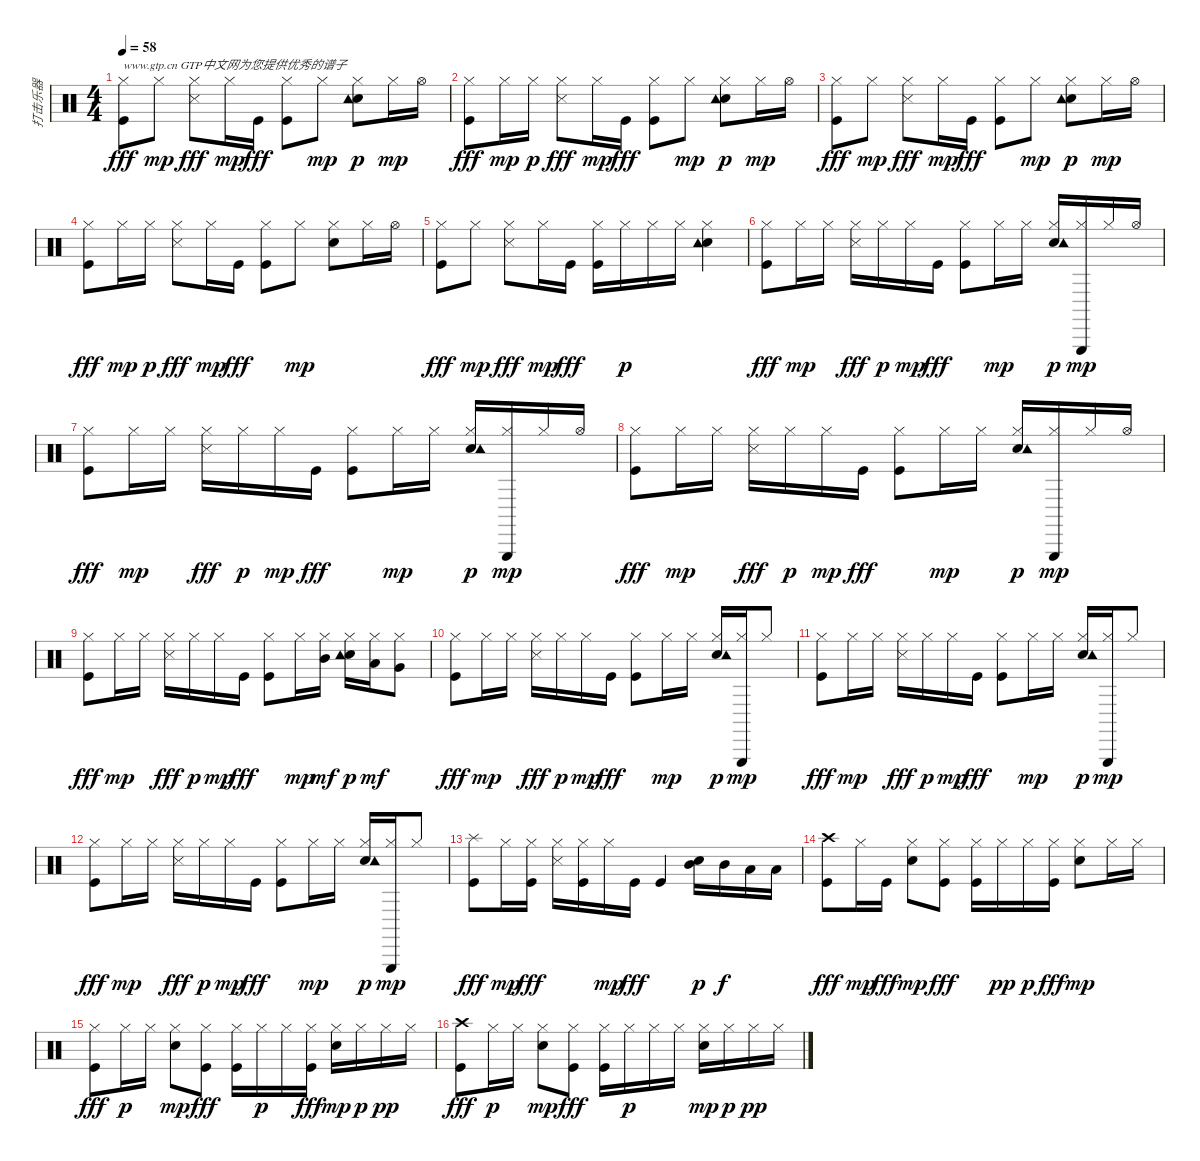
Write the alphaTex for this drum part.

\track ("打击乐器" "打击乐器") {instrument percussion}
\staff {score}
\articulation defaults
\ts (4 4)
\tempo 58
\clef neutral
\ks c
("Hi-Hat (closed)" "Kick (hit)").8{txt "www.gtp.cn GTP中文网为您提供优秀的谱子" dy fff} "Hi-Hat (closed)".8{dy mp} ("Hi-Hat (closed)" "Snare (side stick) 3").8{dy fff} "Hi-Hat (closed)".16{dy mp} "Kick (hit)".16{dy fff} ("Hi-Hat (closed)" "Kick (hit)").8 "Hi-Hat (closed)".8{dy mp} ("Hi-Hat (closed)" "Hand Clap (hit)" "Tambourine (hit)").8{dy p} "Hi-Hat (closed)".16{dy mp} "Hi-Hat (open)".16 |
("Hi-Hat (closed)" "Kick (hit)").8{dy fff} "Hi-Hat (closed)".16{dy mp} "Hi-Hat (closed)".16{dy p} ("Hi-Hat (closed)" "Snare (side stick) 3").8{dy fff} "Hi-Hat (closed)".16{dy mp} "Kick (hit)".16{dy fff} ("Hi-Hat (closed)" "Kick (hit)").8 "Hi-Hat (closed)".8{dy mp} ("Hi-Hat (closed)" "Hand Clap (hit)" "Tambourine (hit)").8{dy p} "Hi-Hat (closed)".16{dy mp} "Hi-Hat (open)".16 |
("Hi-Hat (closed)" "Kick (hit)").8{dy fff} "Hi-Hat (closed)".8{dy mp} ("Hi-Hat (closed)" "Snare (side stick) 3").8{dy fff} "Hi-Hat (closed)".16{dy mp} "Kick (hit)".16{dy fff} ("Hi-Hat (closed)" "Kick (hit)").8 "Hi-Hat (closed)".8{dy mp} ("Hi-Hat (closed)" "Hand Clap (hit)" "Tambourine (hit)").8{dy p} "Hi-Hat (closed)".16{dy mp} "Hi-Hat (open)".16 |
("Hi-Hat (closed)" "Kick (hit)").8{dy fff} "Hi-Hat (closed)".16{dy mp} "Hi-Hat (closed)".16{dy p} ("Hi-Hat (closed)" "Snare (side stick) 3").8{dy fff} "Hi-Hat (closed)".16{dy mp} "Kick (hit)".16{dy fff} ("Hi-Hat (closed)" "Kick (hit)").8 "Hi-Hat (closed)".8{dy mp} ("Hi-Hat (closed)" "Hand Clap (hit)").8 "Hi-Hat (closed)".16 "Hi-Hat (open)".16 |
("Hi-Hat (closed)" "Kick (hit)").8{dy fff} "Hi-Hat (closed)".8{dy mp} ("Hi-Hat (closed)" "Snare (side stick) 3").8{dy fff} "Hi-Hat (closed)".16{dy mp} "Kick (hit)".16{dy fff} ("Hi-Hat (closed)" "Kick (hit)").16 "Hi-Hat (closed)".16{dy p} "Hi-Hat (closed)".16 "Hi-Hat (closed)".16 ("Hi-Hat (closed)" "Hand Clap (hit)" "Tambourine (hit)").4 |
("Hi-Hat (closed)" "Kick (hit)").8{dy fff} "Hi-Hat (closed)".16{dy mp} "Hi-Hat (closed)".16 ("Hi-Hat (closed)" "Snare (side stick) 3").16{dy fff} "Hi-Hat (closed)".16{dy p} "Hi-Hat (closed)".16{dy mp} "Kick (hit)".16{dy fff} ("Hi-Hat (closed)" "Kick (hit)").8 "Hi-Hat (closed)".16{dy mp} "Hi-Hat (closed)".16 ("Hi-Hat (closed)" "Hand Clap (hit)" "Tambourine (hit)").16{dy p} ("Hi-Hat (closed)" "Triangle (hit)").16{dy mp} "Hi-Hat (closed)".16 "Hi-Hat (open)".16 |
("Hi-Hat (closed)" "Kick (hit)").8{dy fff} "Hi-Hat (closed)".16{dy mp} "Hi-Hat (closed)".16 ("Hi-Hat (closed)" "Snare (side stick) 3").16{dy fff} "Hi-Hat (closed)".16{dy p} "Hi-Hat (closed)".16{dy mp} "Kick (hit)".16{dy fff} ("Hi-Hat (closed)" "Kick (hit)").8 "Hi-Hat (closed)".16{dy mp} "Hi-Hat (closed)".16 ("Hi-Hat (closed)" "Hand Clap (hit)" "Tambourine (hit)").16{dy p} ("Hi-Hat (closed)" "Triangle (hit)").16{dy mp} "Hi-Hat (closed)".16 "Hi-Hat (open)".16 |
("Hi-Hat (closed)" "Kick (hit)").8{dy fff} "Hi-Hat (closed)".16{dy mp} "Hi-Hat (closed)".16 ("Hi-Hat (closed)" "Snare (side stick) 3").16{dy fff} "Hi-Hat (closed)".16{dy p} "Hi-Hat (closed)".16{dy mp} "Kick (hit)".16{dy fff} ("Hi-Hat (closed)" "Kick (hit)").8 "Hi-Hat (closed)".16{dy mp} "Hi-Hat (closed)".16 ("Hi-Hat (closed)" "Hand Clap (hit)" "Tambourine (hit)").16{dy p} ("Hi-Hat (closed)" "Triangle (hit)").16{dy mp} "Hi-Hat (closed)".16 "Hi-Hat (open)".16 |
("Hi-Hat (closed)" "Kick (hit)").8{dy fff} "Hi-Hat (closed)".16{dy mp} "Hi-Hat (closed)".16 ("Hi-Hat (closed)" "Snare (side stick) 3").16{dy fff} "Hi-Hat (closed)".16{dy p} "Hi-Hat (closed)".16{dy mp} "Kick (hit)".16{dy fff} ("Hi-Hat (closed)" "Kick (hit)").8 "Hi-Hat (closed)".16{dy mp} ("Hi-Hat (closed)" "Mid Tom (hit)").16{dy mf} ("Hi-Hat (closed)" "Hand Clap (hit)" "Tambourine (hit)").16{dy p} ("Hi-Hat (closed)" "Low Tom (hit)").16{dy mf} ("Hi-Hat (closed)" "Very Low Tom (hit)").8 |
("Hi-Hat (closed)" "Kick (hit)").8{dy fff} "Hi-Hat (closed)".16{dy mp} "Hi-Hat (closed)".16 ("Hi-Hat (closed)" "Snare (side stick) 3").16{dy fff} "Hi-Hat (closed)".16{dy p} "Hi-Hat (closed)".16{dy mp} "Kick (hit)".16{dy fff} ("Hi-Hat (closed)" "Kick (hit)").8 "Hi-Hat (closed)".16{dy mp} "Hi-Hat (closed)".16 ("Hi-Hat (closed)" "Hand Clap (hit)" "Tambourine (hit)").16{dy p} ("Hi-Hat (closed)" "Triangle (hit)").16{dy mp} "Hi-Hat (closed)".8 |
("Hi-Hat (closed)" "Kick (hit)").8{dy fff} "Hi-Hat (closed)".16{dy mp} "Hi-Hat (closed)".16 ("Hi-Hat (closed)" "Snare (side stick) 3").16{dy fff} "Hi-Hat (closed)".16{dy p} "Hi-Hat (closed)".16{dy mp} "Kick (hit)".16{dy fff} ("Hi-Hat (closed)" "Kick (hit)").8 "Hi-Hat (closed)".16{dy mp} "Hi-Hat (closed)".16 ("Hi-Hat (closed)" "Hand Clap (hit)" "Tambourine (hit)").16{dy p} ("Hi-Hat (closed)" "Triangle (hit)").16{dy mp} "Hi-Hat (closed)".8 |
("Hi-Hat (closed)" "Kick (hit)").8{dy fff} "Hi-Hat (closed)".16{dy mp} "Hi-Hat (closed)".16 ("Hi-Hat (closed)" "Snare (side stick) 3").16{dy fff} "Hi-Hat (closed)".16{dy p} "Hi-Hat (closed)".16{dy mp} "Kick (hit)".16{dy fff} ("Hi-Hat (closed)" "Kick (hit)").8 "Hi-Hat (closed)".16{dy mp} "Hi-Hat (closed)".16 ("Hi-Hat (closed)" "Hand Clap (hit)" "Tambourine (hit)").16{dy p} ("Hi-Hat (closed)" "Triangle (hit)").16{dy mp} "Hi-Hat (closed)".8 |
("Splash (hit)" "Kick (hit)").8{dy fff} "Hi-Hat (closed)".16{dy mp} ("Hi-Hat (closed)" "Kick (hit)").16{dy fff} ("Hi-Hat (closed)" "Snare (side stick) 3").16 ("Hi-Hat (closed)" "Kick (hit)").16 "Hi-Hat (closed)".16{dy mp} "Kick (hit)".16{dy fff} "Kick (hit)".4 ("Mid Tom (hit)" "Hand Clap (hit)").16{dy p} "Mid Tom (hit)".16{dy f} "Low Tom (hit)".16 "Low Tom (hit)".16 |
("Crash high (hit)" "Kick (hit)").8{dy fff} "Hi-Hat (closed)".16{dy mp} "Kick (hit)".16{dy fff} ("Hi-Hat (closed)" "Electric Snare (hit)").8{dy mp} ("Hi-Hat (closed)" "Kick (hit)").8{dy fff} ("Hi-Hat (closed)" "Kick (hit)").16 "Hi-Hat (closed)".16{dy pp} "Hi-Hat (closed)".16{dy p} ("Hi-Hat (closed)" "Kick (hit)").16{dy fff} ("Hi-Hat (closed)" "Electric Snare (hit)").8{dy mp} "Hi-Hat (closed)".16 "Hi-Hat (closed)".16 |
("Hi-Hat (closed)" "Kick (hit)").8{dy fff} "Hi-Hat (closed)".16{dy p} "Hi-Hat (closed)".16 ("Hi-Hat (closed)" "Electric Snare (hit)").8{dy mp} ("Hi-Hat (closed)" "Kick (hit)").8{dy fff} ("Hi-Hat (closed)" "Kick (hit)").16 "Hi-Hat (closed)".16{dy p} "Hi-Hat (closed)".16 ("Hi-Hat (closed)" "Kick (hit)").16{dy fff} ("Hi-Hat (closed)" "Electric Snare (hit)").16{dy mp} "Hi-Hat (closed)".16{dy p} "Hi-Hat (closed)".16{dy pp} "Hi-Hat (closed)".16 |
("Crash high (hit)" "Kick (hit)").8{dy fff} "Hi-Hat (closed)".16{dy p} "Hi-Hat (closed)".16 ("Hi-Hat (closed)" "Electric Snare (hit)").8{dy mp} ("Hi-Hat (closed)" "Kick (hit)").8{dy fff} ("Hi-Hat (closed)" "Kick (hit)").16 "Hi-Hat (closed)".16{dy p} "Hi-Hat (closed)".16 "Hi-Hat (closed)".16 ("Hi-Hat (closed)" "Electric Snare (hit)").16{dy mp} "Hi-Hat (closed)".16{dy p} "Hi-Hat (closed)".16{dy pp} "Hi-Hat (closed)".16
